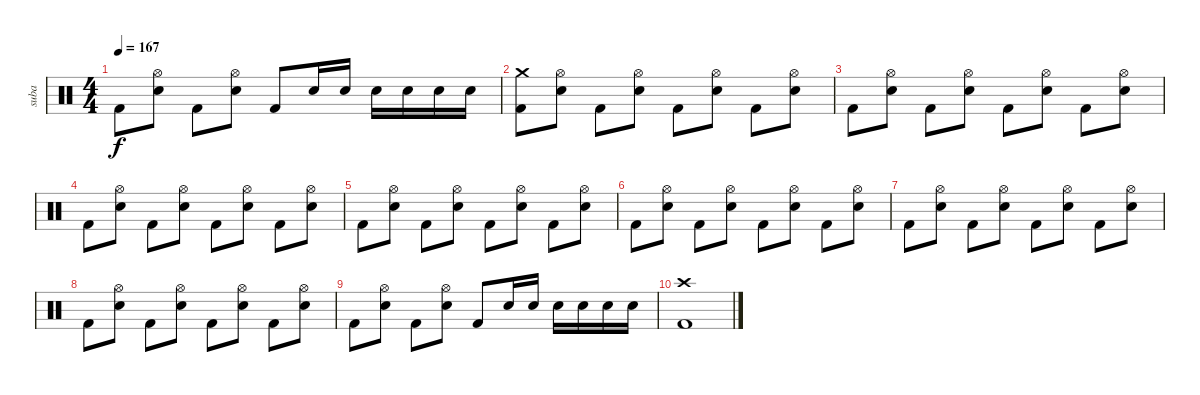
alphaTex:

\track ("suba" "suba") {instrument percussion}
\staff {score}
\articulation defaults
\ts (4 4)
\tempo 167
\clef neutral
\ks c "Kick (hit) 2".8{dy f}
("Hi-Hat (open)" "Electric Snare (hit)").8 "Kick (hit) 2".8 ("Hi-Hat (open)" "Electric Snare (hit)").8 "Kick (hit) 2".8 "Electric Snare (hit)".16 "Electric Snare (hit)".16 "Electric Snare (hit)".16 "Electric Snare (hit)".16 "Electric Snare (hit)".16 "Electric Snare (hit)".16 |
("Crash medium (hit)" "Kick (hit) 2").8 ("Hi-Hat (open)" "Electric Snare (hit)").8 "Kick (hit) 2".8 ("Hi-Hat (open)" "Electric Snare (hit)").8 "Kick (hit) 2".8 ("Hi-Hat (open)" "Electric Snare (hit)").8 "Kick (hit) 2".8 ("Hi-Hat (open)" "Electric Snare (hit)").8 |
"Kick (hit) 2".8 ("Hi-Hat (open)" "Electric Snare (hit)").8 "Kick (hit) 2".8 ("Hi-Hat (open)" "Electric Snare (hit)").8 "Kick (hit) 2".8 ("Hi-Hat (open)" "Electric Snare (hit)").8 "Kick (hit) 2".8 ("Hi-Hat (open)" "Electric Snare (hit)").8 |
"Kick (hit) 2".8 ("Hi-Hat (open)" "Electric Snare (hit)").8 "Kick (hit) 2".8 ("Hi-Hat (open)" "Electric Snare (hit)").8 "Kick (hit) 2".8 ("Hi-Hat (open)" "Electric Snare (hit)").8 "Kick (hit) 2".8 ("Hi-Hat (open)" "Electric Snare (hit)").8 |
"Kick (hit) 2".8 ("Hi-Hat (open)" "Electric Snare (hit)").8 "Kick (hit) 2".8 ("Hi-Hat (open)" "Electric Snare (hit)").8 "Kick (hit) 2".8 ("Hi-Hat (open)" "Electric Snare (hit)").8 "Kick (hit) 2".8 ("Hi-Hat (open)" "Electric Snare (hit)").8 |
"Kick (hit) 2".8 ("Hi-Hat (open)" "Electric Snare (hit)").8 "Kick (hit) 2".8 ("Hi-Hat (open)" "Electric Snare (hit)").8 "Kick (hit) 2".8 ("Hi-Hat (open)" "Electric Snare (hit)").8 "Kick (hit) 2".8 ("Hi-Hat (open)" "Electric Snare (hit)").8 |
"Kick (hit) 2".8 ("Hi-Hat (open)" "Electric Snare (hit)").8 "Kick (hit) 2".8 ("Hi-Hat (open)" "Electric Snare (hit)").8 "Kick (hit) 2".8 ("Hi-Hat (open)" "Electric Snare (hit)").8 "Kick (hit) 2".8 ("Hi-Hat (open)" "Electric Snare (hit)").8 |
"Kick (hit) 2".8 ("Hi-Hat (open)" "Electric Snare (hit)").8 "Kick (hit) 2".8 ("Hi-Hat (open)" "Electric Snare (hit)").8 "Kick (hit) 2".8 ("Hi-Hat (open)" "Electric Snare (hit)").8 "Kick (hit) 2".8 ("Hi-Hat (open)" "Electric Snare (hit)").8 |
"Kick (hit) 2".8 ("Hi-Hat (open)" "Electric Snare (hit)").8 "Kick (hit) 2".8 ("Hi-Hat (open)" "Electric Snare (hit)").8 "Kick (hit) 2".8 "Electric Snare (hit)".16 "Electric Snare (hit)".16 "Electric Snare (hit)".16 "Electric Snare (hit)".16 "Electric Snare (hit)".16 "Electric Snare (hit)".16 |
("Crash high (hit)" "Kick (hit) 2").1
